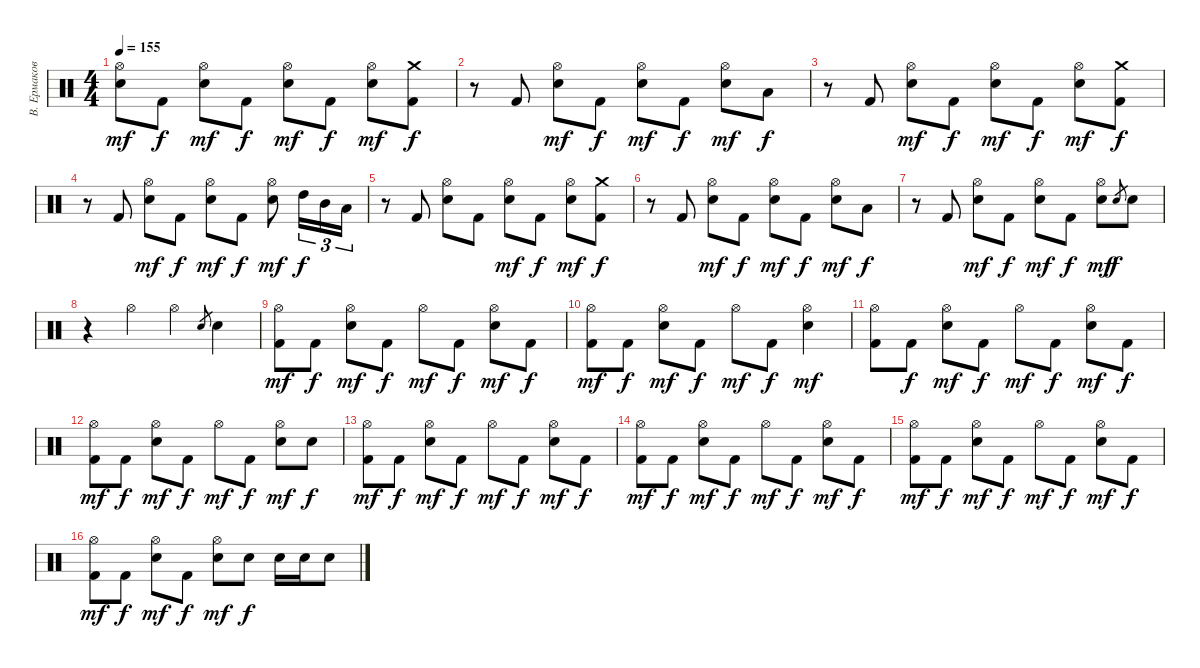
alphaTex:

\track ("В. Ермаков" "В. Ермаков") {instrument percussion}
\staff {score}
\articulation defaults
\ts (4 4)
\tempo 155
\clef neutral
\ks c
("Electric Snare (hit)" "Hi-Hat (open)").8{dy mf} "Kick (hit) 2".8{dy f} ("Electric Snare (hit)" "Hi-Hat (open)").8{dy mf} "Kick (hit) 2".8{dy f} ("Electric Snare (hit)" "Hi-Hat (open)").8{dy mf} "Kick (hit) 2".8{dy f} ("Electric Snare (hit)" "Hi-Hat (open)").8{dy mf} ("Kick (hit) 2" "Crash medium (hit)").8{dy f} |
r.8 "Kick (hit) 2".8 ("Electric Snare (hit)" "Hi-Hat (open)").8{dy mf} "Kick (hit) 2".8{dy f} ("Electric Snare (hit)" "Hi-Hat (open)").8{dy mf} "Kick (hit) 2".8{dy f} ("Electric Snare (hit)" "Hi-Hat (open)").8{dy mf} "Low Tom (hit)".8{dy f} |
r.8 "Kick (hit) 2".8 ("Electric Snare (hit)" "Hi-Hat (open)").8{dy mf} "Kick (hit) 2".8{dy f} ("Electric Snare (hit)" "Hi-Hat (open)").8{dy mf} "Kick (hit) 2".8{dy f} ("Electric Snare (hit)" "Hi-Hat (open)").8{dy mf} ("Kick (hit) 2" "Crash medium (hit)").8{dy f} |
r.8 "Kick (hit) 2".8 ("Electric Snare (hit)" "Hi-Hat (open)").8{dy mf} "Kick (hit) 2".8{dy f} ("Electric Snare (hit)" "Hi-Hat (open)").8{dy mf} "Kick (hit) 2".8{dy f} ("Electric Snare (hit)" "Hi-Hat (open)").8{dy mf} "High Tom (hit)".16{tu (3 2) dy f} "Mid Tom (hit)".16{tu (3 2)} "Low Tom (hit)".16{tu (3 2)} |
r.8 "Kick (hit) 2".8 ("Electric Snare (hit)" "Hi-Hat (open)").8 "Kick (hit) 2".8 ("Electric Snare (hit)" "Hi-Hat (open)").8{dy mf} "Kick (hit) 2".8{dy f} ("Electric Snare (hit)" "Hi-Hat (open)").8{dy mf} ("Kick (hit) 2" "Crash medium (hit)").8{dy f} |
r.8 "Kick (hit) 2".8 ("Electric Snare (hit)" "Hi-Hat (open)").8{dy mf} "Kick (hit) 2".8{dy f} ("Electric Snare (hit)" "Hi-Hat (open)").8{dy mf} "Kick (hit) 2".8{dy f} ("Electric Snare (hit)" "Hi-Hat (open)").8{dy mf} "Low Tom (hit)".8{dy f} |
r.8 "Kick (hit) 2".8 ("Electric Snare (hit)" "Hi-Hat (open)").8{dy mf} "Kick (hit) 2".8{dy f} ("Electric Snare (hit)" "Hi-Hat (open)").8{dy mf} "Kick (hit) 2".8{dy f} ("Electric Snare (hit)" "Hi-Hat (open)").8{dy mf} "Electric Snare (hit)".8{gr dy f} "Electric Snare (hit)".8 |
r.4 "Hi-Hat (open)".4 "Hi-Hat (open)".4 "Electric Snare (hit)".8{gr} "Electric Snare (hit)".4 |
("Hi-Hat (open)" "Kick (hit) 2").8{dy mf} "Kick (hit) 2".8{dy f} ("Hi-Hat (open)" "Electric Snare (hit)").8{dy mf} "Kick (hit) 2".8{dy f} "Hi-Hat (open)".8{dy mf} "Kick (hit) 2".8{dy f} ("Hi-Hat (open)" "Electric Snare (hit)").8{dy mf} "Kick (hit) 2".8{dy f} |
("Hi-Hat (open)" "Kick (hit) 2").8{dy mf} "Kick (hit) 2".8{dy f} ("Hi-Hat (open)" "Electric Snare (hit)").8{dy mf} "Kick (hit) 2".8{dy f} "Hi-Hat (open)".8{dy mf} "Kick (hit) 2".8{dy f} ("Hi-Hat (open)" "Electric Snare (hit)").4{dy mf} |
("Hi-Hat (open)" "Kick (hit) 2").8 "Kick (hit) 2".8{dy f} ("Hi-Hat (open)" "Electric Snare (hit)").8{dy mf} "Kick (hit) 2".8{dy f} "Hi-Hat (open)".8{dy mf} "Kick (hit) 2".8{dy f} ("Hi-Hat (open)" "Electric Snare (hit)").8{dy mf} "Kick (hit) 2".8{dy f} |
("Hi-Hat (open)" "Kick (hit) 2").8{dy mf} "Kick (hit) 2".8{dy f} ("Hi-Hat (open)" "Electric Snare (hit)").8{dy mf} "Kick (hit) 2".8{dy f} "Hi-Hat (open)".8{dy mf} "Kick (hit) 2".8{dy f} ("Hi-Hat (open)" "Electric Snare (hit)").8{dy mf} "Electric Snare (hit)".8{dy f} |
("Hi-Hat (open)" "Kick (hit) 2").8{dy mf} "Kick (hit) 2".8{dy f} ("Hi-Hat (open)" "Electric Snare (hit)").8{dy mf} "Kick (hit) 2".8{dy f} "Hi-Hat (open)".8{dy mf} "Kick (hit) 2".8{dy f} ("Hi-Hat (open)" "Electric Snare (hit)").8{dy mf} "Kick (hit) 2".8{dy f} |
("Hi-Hat (open)" "Kick (hit) 2").8{dy mf} "Kick (hit) 2".8{dy f} ("Hi-Hat (open)" "Electric Snare (hit)").8{dy mf} "Kick (hit) 2".8{dy f} "Hi-Hat (open)".8{dy mf} "Kick (hit) 2".8{dy f} ("Hi-Hat (open)" "Electric Snare (hit)").8{dy mf} "Kick (hit) 2".8{dy f} |
("Hi-Hat (open)" "Kick (hit) 2").8{dy mf} "Kick (hit) 2".8{dy f} ("Hi-Hat (open)" "Electric Snare (hit)").8{dy mf} "Kick (hit) 2".8{dy f} "Hi-Hat (open)".8{dy mf} "Kick (hit) 2".8{dy f} ("Hi-Hat (open)" "Electric Snare (hit)").8{dy mf} "Kick (hit) 2".8{dy f} |
("Hi-Hat (open)" "Kick (hit) 2").8{dy mf} "Kick (hit) 2".8{dy f} ("Hi-Hat (open)" "Electric Snare (hit)").8{dy mf} "Kick (hit) 2".8{dy f} ("Electric Snare (hit)" "Hi-Hat (open)").8{dy mf} "Electric Snare (hit)".8{dy f} "Electric Snare (hit)".16 "Electric Snare (hit)".16 "Electric Snare (hit)".8
